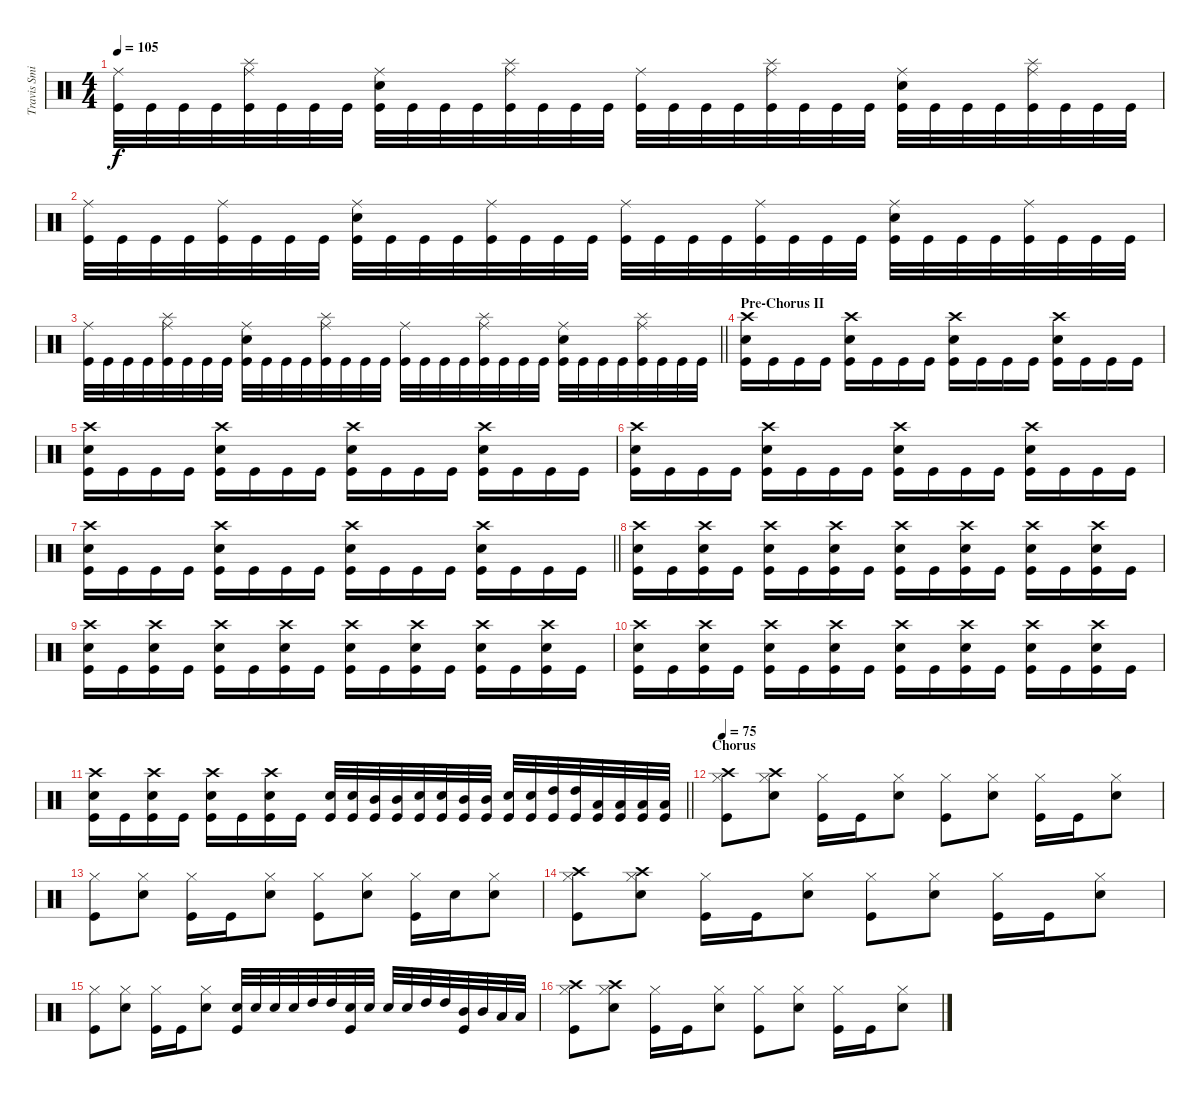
\track ("Travis Smith" "Travis Smi") {instrument percussion}
\staff {score}
\articulation defaults
\ts (4 4)
\tempo 105
\clef neutral
\ks c
("Ride (middle)" "Kick (hit)").32{dy f} "Kick (hit)".32 "Kick (hit)".32 "Kick (hit)".32 ("Ride (middle)" "Splash (hit)" "Kick (hit)").32 "Kick (hit)".32 "Kick (hit)".32 "Kick (hit)".32 ("Ride (middle)" "Snare (hit) 2" "Kick (hit)").32 "Kick (hit)".32 "Kick (hit)".32 "Kick (hit)".32 ("Ride (middle)" "Splash (hit)" "Kick (hit)").32 "Kick (hit)".32 "Kick (hit)".32 "Kick (hit)".32 ("Ride (middle)" "Kick (hit)").32 "Kick (hit)".32 "Kick (hit)".32 "Kick (hit)".32 ("Ride (middle)" "Splash (hit)" "Kick (hit)").32 "Kick (hit)".32 "Kick (hit)".32 "Kick (hit)".32 ("Ride (middle)" "Snare (hit) 2" "Kick (hit)").32 "Kick (hit)".32 "Kick (hit)".32 "Kick (hit)".32 ("Ride (middle)" "Splash (hit)" "Kick (hit)").32 "Kick (hit)".32 "Kick (hit)".32 "Kick (hit)".32 |
("Ride (middle)" "Kick (hit)").32 "Kick (hit)".32 "Kick (hit)".32 "Kick (hit)".32 ("Ride (middle)" "Kick (hit)").32 "Kick (hit)".32 "Kick (hit)".32 "Kick (hit)".32 ("Ride (middle)" "Snare (hit) 2" "Kick (hit)").32 "Kick (hit)".32 "Kick (hit)".32 "Kick (hit)".32 ("Ride (middle)" "Kick (hit)").32 "Kick (hit)".32 "Kick (hit)".32 "Kick (hit)".32 ("Ride (middle)" "Kick (hit)").32 "Kick (hit)".32 "Kick (hit)".32 "Kick (hit)".32 ("Ride (middle)" "Kick (hit)").32 "Kick (hit)".32 "Kick (hit)".32 "Kick (hit)".32 ("Ride (middle)" "Snare (hit) 2" "Kick (hit)").32 "Kick (hit)".32 "Kick (hit)".32 "Kick (hit)".32 ("Ride (middle)" "Kick (hit)").32 "Kick (hit)".32 "Kick (hit)".32 "Kick (hit)".32 |
\barLineRight lightlight
("Ride (middle)" "Kick (hit)").32 "Kick (hit)".32 "Kick (hit)".32 "Kick (hit)".32 ("Ride (middle)" "Splash (hit)" "Kick (hit)").32 "Kick (hit)".32 "Kick (hit)".32 "Kick (hit)".32 ("Ride (middle)" "Snare (hit) 2" "Kick (hit)").32 "Kick (hit)".32 "Kick (hit)".32 "Kick (hit)".32 ("Ride (middle)" "Splash (hit)" "Kick (hit)").32 "Kick (hit)".32 "Kick (hit)".32 "Kick (hit)".32 ("Ride (middle)" "Kick (hit)").32 "Kick (hit)".32 "Kick (hit)".32 "Kick (hit)".32 ("Ride (middle)" "Splash (hit)" "Kick (hit)").32 "Kick (hit)".32 "Kick (hit)".32 "Kick (hit)".32 ("Ride (middle)" "Snare (hit) 2" "Kick (hit)").32 "Kick (hit)".32 "Kick (hit)".32 "Kick (hit)".32 ("Ride (middle)" "Splash (hit)" "Kick (hit)").32 "Kick (hit)".32 "Kick (hit)".32 "Kick (hit)".32 |
\section ("" "Pre-Chorus II")
("Crash high (hit)" "Snare (hit) 2" "Kick (hit)").16 "Kick (hit)".16 "Kick (hit)".16 "Kick (hit)".16 ("Crash high (hit)" "Snare (hit) 2" "Kick (hit)").16 "Kick (hit)".16 "Kick (hit)".16 "Kick (hit)".16 ("Crash high (hit)" "Snare (hit) 2" "Kick (hit)").16 "Kick (hit)".16 "Kick (hit)".16 "Kick (hit)".16 ("Crash high (hit)" "Snare (hit) 2" "Kick (hit)").16 "Kick (hit)".16 "Kick (hit)".16 "Kick (hit)".16 |
("Crash high (hit)" "Snare (hit) 2" "Kick (hit)").16 "Kick (hit)".16 "Kick (hit)".16 "Kick (hit)".16 ("Crash high (hit)" "Snare (hit) 2" "Kick (hit)").16 "Kick (hit)".16 "Kick (hit)".16 "Kick (hit)".16 ("Crash high (hit)" "Snare (hit) 2" "Kick (hit)").16 "Kick (hit)".16 "Kick (hit)".16 "Kick (hit)".16 ("Crash high (hit)" "Snare (hit) 2" "Kick (hit)").16 "Kick (hit)".16 "Kick (hit)".16 "Kick (hit)".16 |
("Crash high (hit)" "Snare (hit) 2" "Kick (hit)").16 "Kick (hit)".16 "Kick (hit)".16 "Kick (hit)".16 ("Crash high (hit)" "Snare (hit) 2" "Kick (hit)").16 "Kick (hit)".16 "Kick (hit)".16 "Kick (hit)".16 ("Crash high (hit)" "Snare (hit) 2" "Kick (hit)").16 "Kick (hit)".16 "Kick (hit)".16 "Kick (hit)".16 ("Crash high (hit)" "Snare (hit) 2" "Kick (hit)").16 "Kick (hit)".16 "Kick (hit)".16 "Kick (hit)".16 |
\barLineRight lightlight
("Crash high (hit)" "Snare (hit) 2" "Kick (hit)").16 "Kick (hit)".16 "Kick (hit)".16 "Kick (hit)".16 ("Crash high (hit)" "Snare (hit) 2" "Kick (hit)").16 "Kick (hit)".16 "Kick (hit)".16 "Kick (hit)".16 ("Crash high (hit)" "Snare (hit) 2" "Kick (hit)").16 "Kick (hit)".16 "Kick (hit)".16 "Kick (hit)".16 ("Crash high (hit)" "Snare (hit) 2" "Kick (hit)").16 "Kick (hit)".16 "Kick (hit)".16 "Kick (hit)".16 |
("Crash high (hit)" "Snare (hit) 2" "Kick (hit)").16 "Kick (hit)".16 ("Crash high (hit)" "Snare (hit) 2" "Kick (hit)").16 "Kick (hit)".16 ("Crash high (hit)" "Snare (hit) 2" "Kick (hit)").16 "Kick (hit)".16 ("Crash high (hit)" "Snare (hit) 2" "Kick (hit)").16 "Kick (hit)".16 ("Crash high (hit)" "Snare (hit) 2" "Kick (hit)").16 "Kick (hit)".16 ("Crash high (hit)" "Snare (hit) 2" "Kick (hit)").16 "Kick (hit)".16 ("Crash high (hit)" "Snare (hit) 2" "Kick (hit)").16 "Kick (hit)".16 ("Crash high (hit)" "Snare (hit) 2" "Kick (hit)").16 "Kick (hit)".16 |
("Crash high (hit)" "Snare (hit) 2" "Kick (hit)").16 "Kick (hit)".16 ("Crash high (hit)" "Snare (hit) 2" "Kick (hit)").16 "Kick (hit)".16 ("Crash high (hit)" "Snare (hit) 2" "Kick (hit)").16 "Kick (hit)".16 ("Crash high (hit)" "Snare (hit) 2" "Kick (hit)").16 "Kick (hit)".16 ("Crash high (hit)" "Snare (hit) 2" "Kick (hit)").16 "Kick (hit)".16 ("Crash high (hit)" "Snare (hit) 2" "Kick (hit)").16 "Kick (hit)".16 ("Crash high (hit)" "Snare (hit) 2" "Kick (hit)").16 "Kick (hit)".16 ("Crash high (hit)" "Snare (hit) 2" "Kick (hit)").16 "Kick (hit)".16 |
("Crash high (hit)" "Snare (hit) 2" "Kick (hit)").16 "Kick (hit)".16 ("Crash high (hit)" "Snare (hit) 2" "Kick (hit)").16 "Kick (hit)".16 ("Crash high (hit)" "Snare (hit) 2" "Kick (hit)").16 "Kick (hit)".16 ("Crash high (hit)" "Snare (hit) 2" "Kick (hit)").16 "Kick (hit)".16 ("Crash high (hit)" "Snare (hit) 2" "Kick (hit)").16 "Kick (hit)".16 ("Crash high (hit)" "Snare (hit) 2" "Kick (hit)").16 "Kick (hit)".16 ("Crash high (hit)" "Snare (hit) 2" "Kick (hit)").16 "Kick (hit)".16 ("Crash high (hit)" "Snare (hit) 2" "Kick (hit)").16 "Kick (hit)".16 |
\barLineRight lightlight
("Crash high (hit)" "Snare (hit) 2" "Kick (hit)").16 "Kick (hit)".16 ("Crash high (hit)" "Snare (hit) 2" "Kick (hit)").16 "Kick (hit)".16 ("Crash high (hit)" "Snare (hit) 2" "Kick (hit)").16 "Kick (hit)".16 ("Crash high (hit)" "Snare (hit) 2" "Kick (hit)").16 "Kick (hit)".16 ("Snare (hit) 2" "Kick (hit)").32 ("Snare (hit) 2" "Kick (hit)").32 ("Mid Tom (hit)" "Kick (hit)").32 ("Mid Tom (hit)" "Kick (hit)").32 ("Snare (hit) 2" "Kick (hit)").32 ("Snare (hit) 2" "Kick (hit)").32 ("Mid Tom (hit)" "Kick (hit)").32 ("Mid Tom (hit)" "Kick (hit)").32 ("Snare (hit) 2" "Kick (hit)").32 ("Snare (hit) 2" "Kick (hit)").32 ("High Tom (hit)" "Kick (hit)").32 ("High Tom (hit)" "Kick (hit)").32 ("Low Tom (hit)" "Kick (hit)").32 ("Low Tom (hit)" "Kick (hit)").32 ("Low Floor Tom (hit)" "Kick (hit)").32 ("Low Floor Tom (hit)" "Kick (hit)").32 |
\section ("" "Chorus")
\tempo 75
("Crash high (hit)" "Hi-Hat (closed)" "Kick (hit)").8 ("Crash high (hit)" "Hi-Hat (closed)" "Snare (hit) 2").8 ("Hi-Hat (closed)" "Kick (hit)").16 "Kick (hit)".16 ("Hi-Hat (closed)" "Snare (hit) 2").8 ("Hi-Hat (closed)" "Kick (hit)").8 ("Hi-Hat (closed)" "Snare (hit) 2").8 ("Hi-Hat (closed)" "Kick (hit)").16 "Kick (hit)".16 ("Hi-Hat (closed)" "Snare (hit) 2").8 |
("Hi-Hat (closed)" "Kick (hit)").8 ("Hi-Hat (closed)" "Snare (hit) 2").8 ("Hi-Hat (closed)" "Kick (hit)").16 "Kick (hit)".16 ("Hi-Hat (closed)" "Snare (hit) 2").8 ("Hi-Hat (closed)" "Kick (hit)").8 ("Hi-Hat (closed)" "Snare (hit) 2").8 ("Hi-Hat (closed)" "Kick (hit)").16 "Snare (hit) 2".16 ("Hi-Hat (closed)" "Snare (hit) 2").8 |
("Crash high (hit)" "Hi-Hat (closed)" "Kick (hit)").8 ("Crash high (hit)" "Hi-Hat (closed)" "Snare (hit) 2").8 ("Hi-Hat (closed)" "Kick (hit)").16 "Kick (hit)".16 ("Hi-Hat (closed)" "Snare (hit) 2").8 ("Hi-Hat (closed)" "Kick (hit)").8 ("Hi-Hat (closed)" "Snare (hit) 2").8 ("Hi-Hat (closed)" "Kick (hit)").16 "Kick (hit)".16 ("Hi-Hat (closed)" "Snare (hit) 2").8 |
("Hi-Hat (closed)" "Kick (hit)").8 ("Hi-Hat (closed)" "Snare (hit) 2").8 ("Hi-Hat (closed)" "Kick (hit)").16 "Kick (hit)".16 ("Hi-Hat (closed)" "Snare (hit) 2").8 ("Snare (hit) 2" "Kick (hit)").32 "Snare (hit) 2".32 "Snare (hit) 2".32 "Snare (hit) 2".32 "High Tom (hit)".32 "High Tom (hit)".32 ("Snare (hit) 2" "Kick (hit)").32 "Snare (hit) 2".32 "Snare (hit) 2".32 "Snare (hit) 2".32 "High Tom (hit)".32 "High Tom (hit)".32 ("Mid Tom (hit)" "Kick (hit)").32 "Mid Tom (hit)".32 "Low Floor Tom (hit)".32 "Low Floor Tom (hit)".32 |
("Crash high (hit)" "Hi-Hat (closed)" "Kick (hit)").8 ("Crash high (hit)" "Hi-Hat (closed)" "Snare (hit) 2").8 ("Hi-Hat (closed)" "Kick (hit)").16 "Kick (hit)".16 ("Hi-Hat (closed)" "Snare (hit) 2").8 ("Hi-Hat (closed)" "Kick (hit)").8 ("Hi-Hat (closed)" "Snare (hit) 2").8 ("Hi-Hat (closed)" "Kick (hit)").16 "Kick (hit)".16 ("Hi-Hat (closed)" "Snare (hit) 2").8
